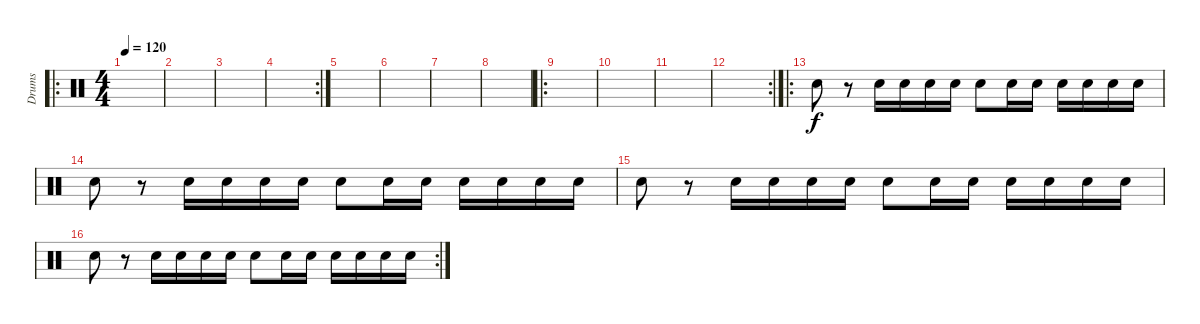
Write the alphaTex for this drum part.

\track ("Drums" "Drums") {instrument percussion}
\staff {score}
\articulation defaults
\ro
\ts (4 4)
\tempo 120
\clef neutral
\ks c
|
|
|
\rc 2
|
|
|
|
|
\ro
|
|
|
\rc 2
|
\ro "Snare (hit) 2".8
r.8 "Snare (hit) 2".16 "Snare (hit) 2".16 "Snare (hit) 2".16 "Snare (hit) 2".16 "Snare (hit) 2".8 "Snare (hit) 2".16 "Snare (hit) 2".16 "Snare (hit) 2".16 "Snare (hit) 2".16 "Snare (hit) 2".16 "Snare (hit) 2".16 |
"Snare (hit) 2".8 r.8 "Snare (hit) 2".16 "Snare (hit) 2".16 "Snare (hit) 2".16 "Snare (hit) 2".16 "Snare (hit) 2".8 "Snare (hit) 2".16 "Snare (hit) 2".16 "Snare (hit) 2".16 "Snare (hit) 2".16 "Snare (hit) 2".16 "Snare (hit) 2".16 |
"Snare (hit) 2".8 r.8 "Snare (hit) 2".16 "Snare (hit) 2".16 "Snare (hit) 2".16 "Snare (hit) 2".16 "Snare (hit) 2".8 "Snare (hit) 2".16 "Snare (hit) 2".16 "Snare (hit) 2".16 "Snare (hit) 2".16 "Snare (hit) 2".16 "Snare (hit) 2".16 |
\rc 2 "Snare (hit) 2".8
r.8 "Snare (hit) 2".16 "Snare (hit) 2".16 "Snare (hit) 2".16 "Snare (hit) 2".16 "Snare (hit) 2".8 "Snare (hit) 2".16 "Snare (hit) 2".16 "Snare (hit) 2".16 "Snare (hit) 2".16 "Snare (hit) 2".16 "Snare (hit) 2".16
